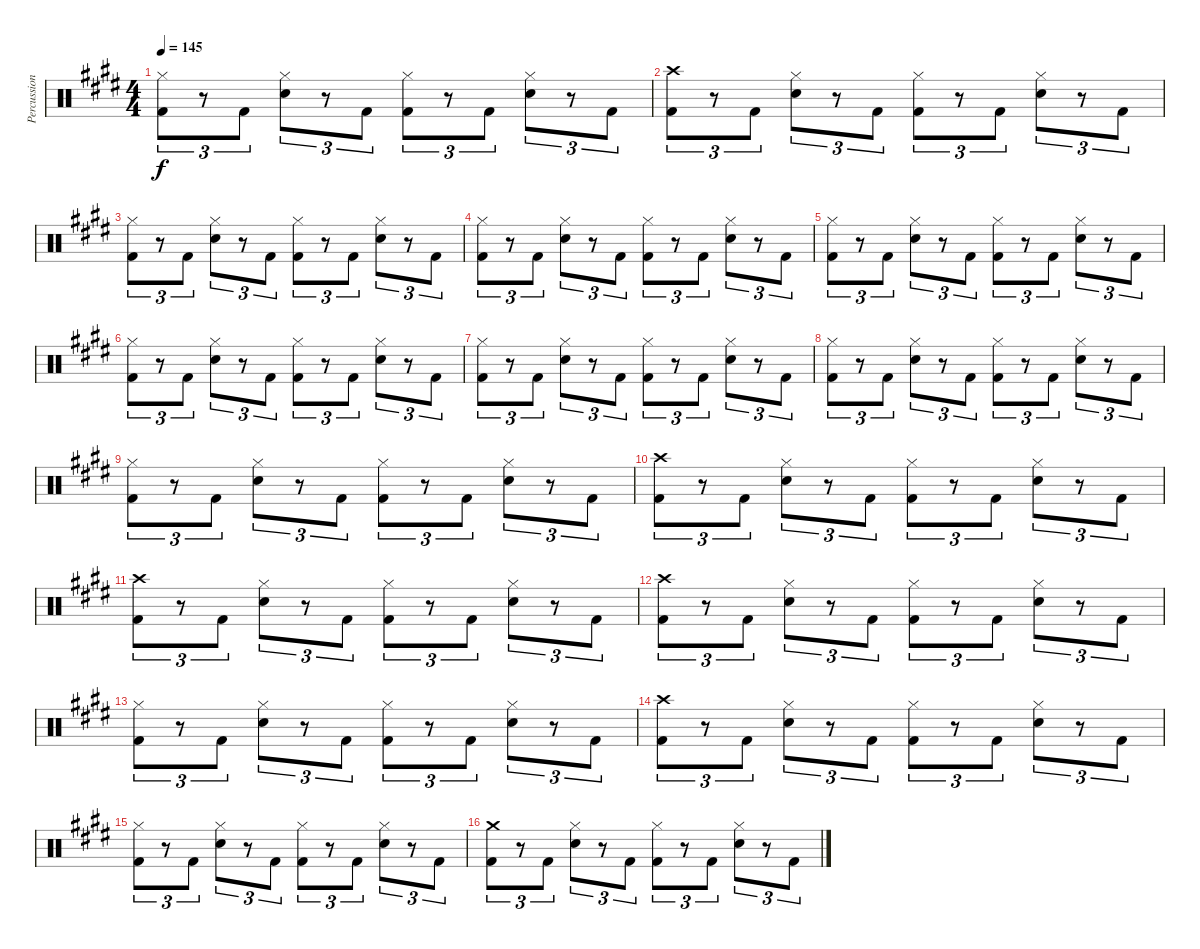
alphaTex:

\track ("Percussions" "Percussion") {solo instrument percussion}
\staff {score}
\articulation defaults
\ts (4 4)
\tempo 145
\clef neutral
\ks e
("Hi-Hat (closed)" "Kick (hit) 2").8{tu (3 2) dy f} r.8{tu (3 2)} "Kick (hit) 2".8{tu (3 2)} ("Hi-Hat (closed)" "Snare (hit) 2").8{tu (3 2)} r.8{tu (3 2)} "Kick (hit) 2".8{tu (3 2)} ("Hi-Hat (closed)" "Kick (hit) 2").8{tu (3 2)} r.8{tu (3 2)} "Kick (hit) 2".8{tu (3 2)} ("Hi-Hat (closed)" "Snare (hit) 2").8{tu (3 2)} r.8{tu (3 2)} "Kick (hit) 2".8{tu (3 2)} |
("Crash high (hit)" "Kick (hit) 2").8{tu (3 2)} r.8{tu (3 2)} "Kick (hit) 2".8{tu (3 2)} ("Hi-Hat (closed)" "Snare (hit) 2").8{tu (3 2)} r.8{tu (3 2)} "Kick (hit) 2".8{tu (3 2)} ("Hi-Hat (closed)" "Kick (hit) 2").8{tu (3 2)} r.8{tu (3 2)} "Kick (hit) 2".8{tu (3 2)} ("Hi-Hat (closed)" "Snare (hit) 2").8{tu (3 2)} r.8{tu (3 2)} "Kick (hit) 2".8{tu (3 2)} |
("Hi-Hat (closed)" "Kick (hit) 2").8{tu (3 2)} r.8{tu (3 2)} "Kick (hit) 2".8{tu (3 2)} ("Hi-Hat (closed)" "Snare (hit) 2").8{tu (3 2)} r.8{tu (3 2)} "Kick (hit) 2".8{tu (3 2)} ("Hi-Hat (closed)" "Kick (hit) 2").8{tu (3 2)} r.8{tu (3 2)} "Kick (hit) 2".8{tu (3 2)} ("Hi-Hat (closed)" "Snare (hit) 2").8{tu (3 2)} r.8{tu (3 2)} "Kick (hit) 2".8{tu (3 2)} |
("Hi-Hat (closed)" "Kick (hit) 2").8{tu (3 2)} r.8{tu (3 2)} "Kick (hit) 2".8{tu (3 2)} ("Hi-Hat (closed)" "Snare (hit) 2").8{tu (3 2)} r.8{tu (3 2)} "Kick (hit) 2".8{tu (3 2)} ("Hi-Hat (closed)" "Kick (hit) 2").8{tu (3 2)} r.8{tu (3 2)} "Kick (hit) 2".8{tu (3 2)} ("Hi-Hat (closed)" "Snare (hit) 2").8{tu (3 2)} r.8{tu (3 2)} "Kick (hit) 2".8{tu (3 2)} |
("Hi-Hat (closed)" "Kick (hit) 2").8{tu (3 2)} r.8{tu (3 2)} "Kick (hit) 2".8{tu (3 2)} ("Hi-Hat (closed)" "Snare (hit) 2").8{tu (3 2)} r.8{tu (3 2)} "Kick (hit) 2".8{tu (3 2)} ("Hi-Hat (closed)" "Kick (hit) 2").8{tu (3 2)} r.8{tu (3 2)} "Kick (hit) 2".8{tu (3 2)} ("Hi-Hat (closed)" "Snare (hit) 2").8{tu (3 2)} r.8{tu (3 2)} "Kick (hit) 2".8{tu (3 2)} |
("Hi-Hat (closed)" "Kick (hit) 2").8{tu (3 2)} r.8{tu (3 2)} "Kick (hit) 2".8{tu (3 2)} ("Hi-Hat (closed)" "Snare (hit) 2").8{tu (3 2)} r.8{tu (3 2)} "Kick (hit) 2".8{tu (3 2)} ("Hi-Hat (closed)" "Kick (hit) 2").8{tu (3 2)} r.8{tu (3 2)} "Kick (hit) 2".8{tu (3 2)} ("Hi-Hat (closed)" "Snare (hit) 2").8{tu (3 2)} r.8{tu (3 2)} "Kick (hit) 2".8{tu (3 2)} |
("Hi-Hat (closed)" "Kick (hit) 2").8{tu (3 2)} r.8{tu (3 2)} "Kick (hit) 2".8{tu (3 2)} ("Hi-Hat (closed)" "Snare (hit) 2").8{tu (3 2)} r.8{tu (3 2)} "Kick (hit) 2".8{tu (3 2)} ("Hi-Hat (closed)" "Kick (hit) 2").8{tu (3 2)} r.8{tu (3 2)} "Kick (hit) 2".8{tu (3 2)} ("Hi-Hat (closed)" "Snare (hit) 2").8{tu (3 2)} r.8{tu (3 2)} "Kick (hit) 2".8{tu (3 2)} |
("Hi-Hat (closed)" "Kick (hit) 2").8{tu (3 2)} r.8{tu (3 2)} "Kick (hit) 2".8{tu (3 2)} ("Hi-Hat (closed)" "Snare (hit) 2").8{tu (3 2)} r.8{tu (3 2)} "Kick (hit) 2".8{tu (3 2)} ("Hi-Hat (closed)" "Kick (hit) 2").8{tu (3 2)} r.8{tu (3 2)} "Kick (hit) 2".8{tu (3 2)} ("Hi-Hat (closed)" "Snare (hit) 2").8{tu (3 2)} r.8{tu (3 2)} "Kick (hit) 2".8{tu (3 2)} |
("Hi-Hat (closed)" "Kick (hit) 2").8{tu (3 2)} r.8{tu (3 2)} "Kick (hit) 2".8{tu (3 2)} ("Hi-Hat (closed)" "Snare (hit) 2").8{tu (3 2)} r.8{tu (3 2)} "Kick (hit) 2".8{tu (3 2)} ("Hi-Hat (closed)" "Kick (hit) 2").8{tu (3 2)} r.8{tu (3 2)} "Kick (hit) 2".8{tu (3 2)} ("Hi-Hat (closed)" "Snare (hit) 2").8{tu (3 2)} r.8{tu (3 2)} "Kick (hit) 2".8{tu (3 2)} |
("Crash high (hit)" "Kick (hit) 2").8{tu (3 2)} r.8{tu (3 2)} "Kick (hit) 2".8{tu (3 2)} ("Hi-Hat (closed)" "Snare (hit) 2").8{tu (3 2)} r.8{tu (3 2)} "Kick (hit) 2".8{tu (3 2)} ("Hi-Hat (closed)" "Kick (hit) 2").8{tu (3 2)} r.8{tu (3 2)} "Kick (hit) 2".8{tu (3 2)} ("Hi-Hat (closed)" "Snare (hit) 2").8{tu (3 2)} r.8{tu (3 2)} "Kick (hit) 2".8{tu (3 2)} |
("Crash high (hit)" "Kick (hit) 2").8{tu (3 2)} r.8{tu (3 2)} "Kick (hit) 2".8{tu (3 2)} ("Hi-Hat (closed)" "Snare (hit) 2").8{tu (3 2)} r.8{tu (3 2)} "Kick (hit) 2".8{tu (3 2)} ("Hi-Hat (closed)" "Kick (hit) 2").8{tu (3 2)} r.8{tu (3 2)} "Kick (hit) 2".8{tu (3 2)} ("Hi-Hat (closed)" "Snare (hit) 2").8{tu (3 2)} r.8{tu (3 2)} "Kick (hit) 2".8{tu (3 2)} |
("Crash high (hit)" "Kick (hit) 2").8{tu (3 2)} r.8{tu (3 2)} "Kick (hit) 2".8{tu (3 2)} ("Hi-Hat (closed)" "Snare (hit) 2").8{tu (3 2)} r.8{tu (3 2)} "Kick (hit) 2".8{tu (3 2)} ("Hi-Hat (closed)" "Kick (hit) 2").8{tu (3 2)} r.8{tu (3 2)} "Kick (hit) 2".8{tu (3 2)} ("Hi-Hat (closed)" "Snare (hit) 2").8{tu (3 2)} r.8{tu (3 2)} "Kick (hit) 2".8{tu (3 2)} |
("Hi-Hat (closed)" "Kick (hit) 2").8{tu (3 2)} r.8{tu (3 2)} "Kick (hit) 2".8{tu (3 2)} ("Hi-Hat (closed)" "Snare (hit) 2").8{tu (3 2)} r.8{tu (3 2)} "Kick (hit) 2".8{tu (3 2)} ("Hi-Hat (closed)" "Kick (hit) 2").8{tu (3 2)} r.8{tu (3 2)} "Kick (hit) 2".8{tu (3 2)} ("Hi-Hat (closed)" "Snare (hit) 2").8{tu (3 2)} r.8{tu (3 2)} "Kick (hit) 2".8{tu (3 2)} |
("Crash high (hit)" "Kick (hit) 2").8{tu (3 2)} r.8{tu (3 2)} "Kick (hit) 2".8{tu (3 2)} ("Hi-Hat (closed)" "Snare (hit) 2").8{tu (3 2)} r.8{tu (3 2)} "Kick (hit) 2".8{tu (3 2)} ("Hi-Hat (closed)" "Kick (hit) 2").8{tu (3 2)} r.8{tu (3 2)} "Kick (hit) 2".8{tu (3 2)} ("Hi-Hat (closed)" "Snare (hit) 2").8{tu (3 2)} r.8{tu (3 2)} "Kick (hit) 2".8{tu (3 2)} |
("Hi-Hat (closed)" "Kick (hit) 2").8{tu (3 2)} r.8{tu (3 2)} "Kick (hit) 2".8{tu (3 2)} ("Hi-Hat (closed)" "Snare (hit) 2").8{tu (3 2)} r.8{tu (3 2)} "Kick (hit) 2".8{tu (3 2)} ("Hi-Hat (closed)" "Kick (hit) 2").8{tu (3 2)} r.8{tu (3 2)} "Kick (hit) 2".8{tu (3 2)} ("Hi-Hat (closed)" "Snare (hit) 2").8{tu (3 2)} r.8{tu (3 2)} "Kick (hit) 2".8{tu (3 2)} |
("Crash medium (hit)" "Kick (hit) 2").8{tu (3 2)} r.8{tu (3 2)} "Kick (hit) 2".8{tu (3 2)} ("Hi-Hat (closed)" "Snare (hit) 2").8{tu (3 2)} r.8{tu (3 2)} "Kick (hit) 2".8{tu (3 2)} ("Hi-Hat (closed)" "Kick (hit) 2").8{tu (3 2)} r.8{tu (3 2)} "Kick (hit) 2".8{tu (3 2)} ("Hi-Hat (closed)" "Snare (hit) 2").8{tu (3 2)} r.8{tu (3 2)} "Kick (hit) 2".8{tu (3 2)}
